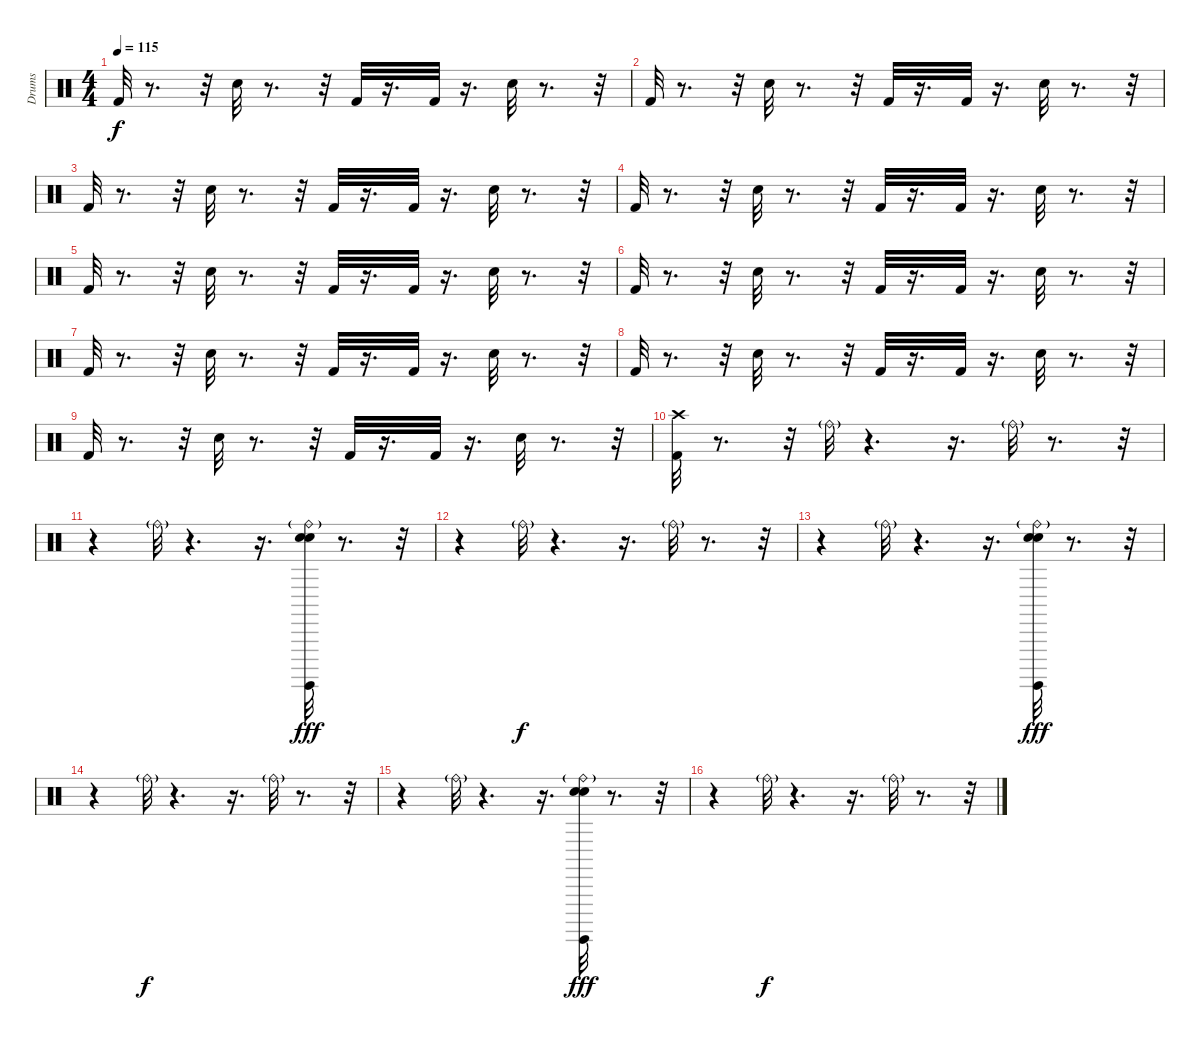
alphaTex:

\track ("Drums" "Drums") {instrument percussion}
\staff {score}
\articulation defaults
\ts (4 4)
\tempo 115
\clef neutral
\ks c "Kick (hit) 2".32{dy f}
r.8{d} r.32 "Snare (hit) 2".32 r.8{d} r.32 "Kick (hit) 2".32 r.16{d} "Kick (hit) 2".32 r.16{d} "Snare (hit) 2".32 r.8{d} r.32 |
"Kick (hit) 2".32 r.8{d} r.32 "Snare (hit) 2".32 r.8{d} r.32 "Kick (hit) 2".32 r.16{d} "Kick (hit) 2".32 r.16{d} "Snare (hit) 2".32 r.8{d} r.32 |
"Kick (hit) 2".32 r.8{d} r.32 "Snare (hit) 2".32 r.8{d} r.32 "Kick (hit) 2".32 r.16{d} "Kick (hit) 2".32 r.16{d} "Snare (hit) 2".32 r.8{d} r.32 |
"Kick (hit) 2".32 r.8{d} r.32 "Snare (hit) 2".32 r.8{d} r.32 "Kick (hit) 2".32 r.16{d} "Kick (hit) 2".32 r.16{d} "Snare (hit) 2".32 r.8{d} r.32 |
"Kick (hit) 2".32 r.8{d} r.32 "Snare (hit) 2".32 r.8{d} r.32 "Kick (hit) 2".32 r.16{d} "Kick (hit) 2".32 r.16{d} "Snare (hit) 2".32 r.8{d} r.32 |
"Kick (hit) 2".32 r.8{d} r.32 "Snare (hit) 2".32 r.8{d} r.32 "Kick (hit) 2".32 r.16{d} "Kick (hit) 2".32 r.16{d} "Snare (hit) 2".32 r.8{d} r.32 |
"Kick (hit) 2".32 r.8{d} r.32 "Snare (hit) 2".32 r.8{d} r.32 "Kick (hit) 2".32 r.16{d} "Kick (hit) 2".32 r.16{d} "Snare (hit) 2".32 r.8{d} r.32 |
"Kick (hit) 2".32 r.8{d} r.32 "Snare (hit) 2".32 r.8{d} r.32 "Kick (hit) 2".32 r.16{d} "Kick (hit) 2".32 r.16{d} "Snare (hit) 2".32 r.8{d} r.32 |
"Kick (hit) 2".32 r.8{d} r.32 "Snare (hit) 2".32 r.8{d} r.32 "Kick (hit) 2".32 r.16{d} "Kick (hit) 2".32 r.16{d} "Snare (hit) 2".32 r.8{d} r.32 |
("Kick (hit) 2" "Crash high (hit)").32 r.8{d} r.32 "Ride (bell)"{g}.32 r.4{d} r.16{d} "Ride (bell)"{g}.32 r.8{d} r.32 |
r.4 "Ride (bell)"{g}.32 r.4{d} r.16{d} ("Surdo (hit)" "Ride (bell)"{g} "Electric Snare (hit)" "Snare (hit) 2").32{dy fff} r.8{d} r.32 |
r.4 "Ride (bell)"{g}.32{dy f} r.4{d} r.16{d} "Ride (bell)"{g}.32 r.8{d} r.32 |
r.4 "Ride (bell)"{g}.32 r.4{d} r.16{d} ("Ride (bell)"{g} "Surdo (hit)" "Electric Snare (hit)" "Snare (hit) 2").32{dy fff} r.8{d} r.32 |
r.4 "Ride (bell)"{g}.32{dy f} r.4{d} r.16{d} "Ride (bell)"{g}.32 r.8{d} r.32 |
r.4 "Ride (bell)"{g}.32 r.4{d} r.16{d} ("Ride (bell)"{g} "Snare (hit) 2" "Electric Snare (hit)" "Surdo (hit)").32{dy fff} r.8{d} r.32 |
r.4 "Ride (bell)"{g}.32{dy f} r.4{d} r.16{d} "Ride (bell)"{g}.32 r.8{d} r.32
